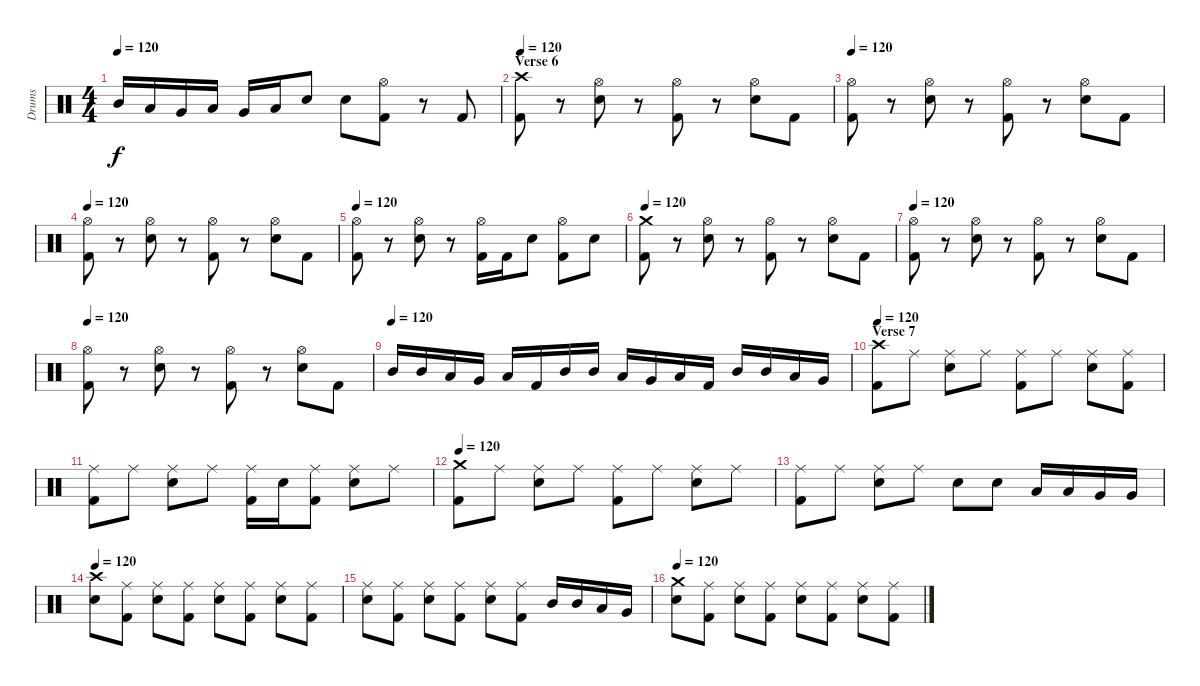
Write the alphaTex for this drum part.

\track ("Drums" "Drums") {instrument percussion}
\staff {score}
\articulation defaults
\ts (4 4)
\tempo 120
\clef neutral
\ks c "Mid Tom (hit)".16{dy f} "Low Tom (hit)".16 "Very Low Tom (hit)".16 "Low Tom (hit)".16 "Very Low Tom (hit)".16 "Low Tom (hit)".16 "Electric Snare (hit)".8 "Electric Snare (hit)".8
("Hi-Hat (open)" "Kick (hit) 2").8 r.8 "Kick (hit) 2".8 |
\section ("" "Verse 6")
\tempo 120
("Crash high (hit)" "Kick (hit) 2").8 r.8 ("Hi-Hat (open)" "Electric Snare (hit)").8 r.8 ("Hi-Hat (open)" "Kick (hit) 2").8 r.8 ("Hi-Hat (open)" "Electric Snare (hit)").8 "Kick (hit) 2".8 |
\tempo 120
("Hi-Hat (open)" "Kick (hit) 2").8 r.8 ("Hi-Hat (open)" "Electric Snare (hit)").8 r.8 ("Hi-Hat (open)" "Kick (hit) 2").8 r.8 ("Hi-Hat (open)" "Electric Snare (hit)").8 "Kick (hit) 2".8 |
\tempo 120
("Hi-Hat (open)" "Kick (hit) 2").8 r.8 ("Hi-Hat (open)" "Electric Snare (hit)").8 r.8 ("Hi-Hat (open)" "Kick (hit) 2").8 r.8 ("Hi-Hat (open)" "Electric Snare (hit)").8 "Kick (hit) 2".8 |
\tempo 120
("Hi-Hat (open)" "Kick (hit) 2").8 r.8 ("Hi-Hat (open)" "Electric Snare (hit)").8 r.8 ("Hi-Hat (open)" "Kick (hit) 2").16 "Kick (hit) 2".16 "Electric Snare (hit)".8 ("Hi-Hat (open)" "Kick (hit) 2").8 "Electric Snare (hit)".8 |
\tempo 120
("Crash medium (hit)" "Kick (hit) 2").8 r.8 ("Hi-Hat (open)" "Electric Snare (hit)").8 r.8 ("Hi-Hat (open)" "Kick (hit) 2").8 r.8 ("Hi-Hat (open)" "Electric Snare (hit)").8 "Kick (hit) 2".8 |
\tempo 120
("Hi-Hat (open)" "Kick (hit) 2").8 r.8 ("Hi-Hat (open)" "Electric Snare (hit)").8 r.8 ("Hi-Hat (open)" "Kick (hit) 2").8 r.8 ("Hi-Hat (open)" "Electric Snare (hit)").8 "Kick (hit) 2".8 |
\tempo 120
("Hi-Hat (open)" "Kick (hit) 2").8 r.8 ("Hi-Hat (open)" "Electric Snare (hit)").8 r.8 ("Hi-Hat (open)" "Kick (hit) 2").8 r.8 ("Hi-Hat (open)" "Electric Snare (hit)").8 "Kick (hit) 2".8 |
\tempo (120)
"Mid Tom (hit)".16 "Mid Tom (hit)".16 "Low Tom (hit)".16 "Very Low Tom (hit)".16 "Low Floor Tom (hit)".16 "Kick (hit) 2".16 "Mid Tom (hit)".16 "Mid Tom (hit)".16 "Low Tom (hit)".16 "Very Low Tom (hit)".16 "Low Floor Tom (hit)".16 "Kick (hit) 2".16 "Mid Tom (hit)".16 "Mid Tom (hit)".16 "Low Tom (hit)".16 "Very Low Tom (hit)".16 |
\section ("" "Verse 7")
\tempo 120
("Crash high (hit)" "Kick (hit) 2").8 "Ride (middle)".8 ("Ride (middle)" "Electric Snare (hit)").8 "Ride (middle)".8 ("Ride (middle)" "Kick (hit) 2").8 "Ride (middle)".8 ("Ride (middle)" "Electric Snare (hit)").8 ("Ride (middle)" "Kick (hit) 2").8 |
("Ride (middle)" "Kick (hit) 2").8 "Ride (middle)".8 ("Ride (middle)" "Electric Snare (hit)").8 "Ride (middle)".8 ("Ride (middle)" "Kick (hit) 2").16 "Electric Snare (hit)".16 ("Ride (middle)" "Kick (hit) 2").8 ("Ride (middle)" "Electric Snare (hit)").8 "Ride (middle)".8 |
\tempo 120
("Crash medium (hit)" "Kick (hit) 2").8 "Ride (middle)".8 ("Ride (middle)" "Electric Snare (hit)").8 "Ride (middle)".8 ("Ride (middle)" "Kick (hit) 2").8 "Ride (middle)".8 ("Ride (middle)" "Electric Snare (hit)").8 "Ride (middle)".8 |
("Ride (middle)" "Kick (hit) 2").8 "Ride (middle)".8 ("Ride (middle)" "Electric Snare (hit)").8 "Ride (middle)".8 "Electric Snare (hit)".8 "Electric Snare (hit)".8 "Low Tom (hit)".16 "Low Tom (hit)".16 "Very Low Tom (hit)".16 "Very Low Tom (hit)".16 |
\tempo 120
("Crash high (hit)" "Electric Snare (hit)").8 ("Ride (middle)" "Kick (hit) 2").8 ("Ride (middle)" "Electric Snare (hit)").8 ("Ride (middle)" "Kick (hit) 2").8 ("Ride (middle)" "Electric Snare (hit)").8 ("Ride (middle)" "Kick (hit) 2").8 ("Ride (middle)" "Electric Snare (hit)").8 ("Ride (middle)" "Kick (hit) 2").8 |
("Ride (middle)" "Electric Snare (hit)").8 ("Ride (middle)" "Kick (hit) 2").8 ("Ride (middle)" "Electric Snare (hit)").8 ("Ride (middle)" "Kick (hit) 2").8 ("Ride (middle)" "Electric Snare (hit)").8 ("Ride (middle)" "Kick (hit) 2").8 "Mid Tom (hit)".16 "Mid Tom (hit)".16 "Low Tom (hit)".16 "Very Low Tom (hit)".16 |
\tempo 120
("Crash medium (hit)" "Electric Snare (hit)").8 ("Ride (middle)" "Kick (hit) 2").8 ("Ride (middle)" "Electric Snare (hit)").8 ("Ride (middle)" "Kick (hit) 2").8 ("Ride (middle)" "Electric Snare (hit)").8 ("Ride (middle)" "Kick (hit) 2").8 ("Ride (middle)" "Electric Snare (hit)").8 ("Ride (middle)" "Kick (hit) 2").8
